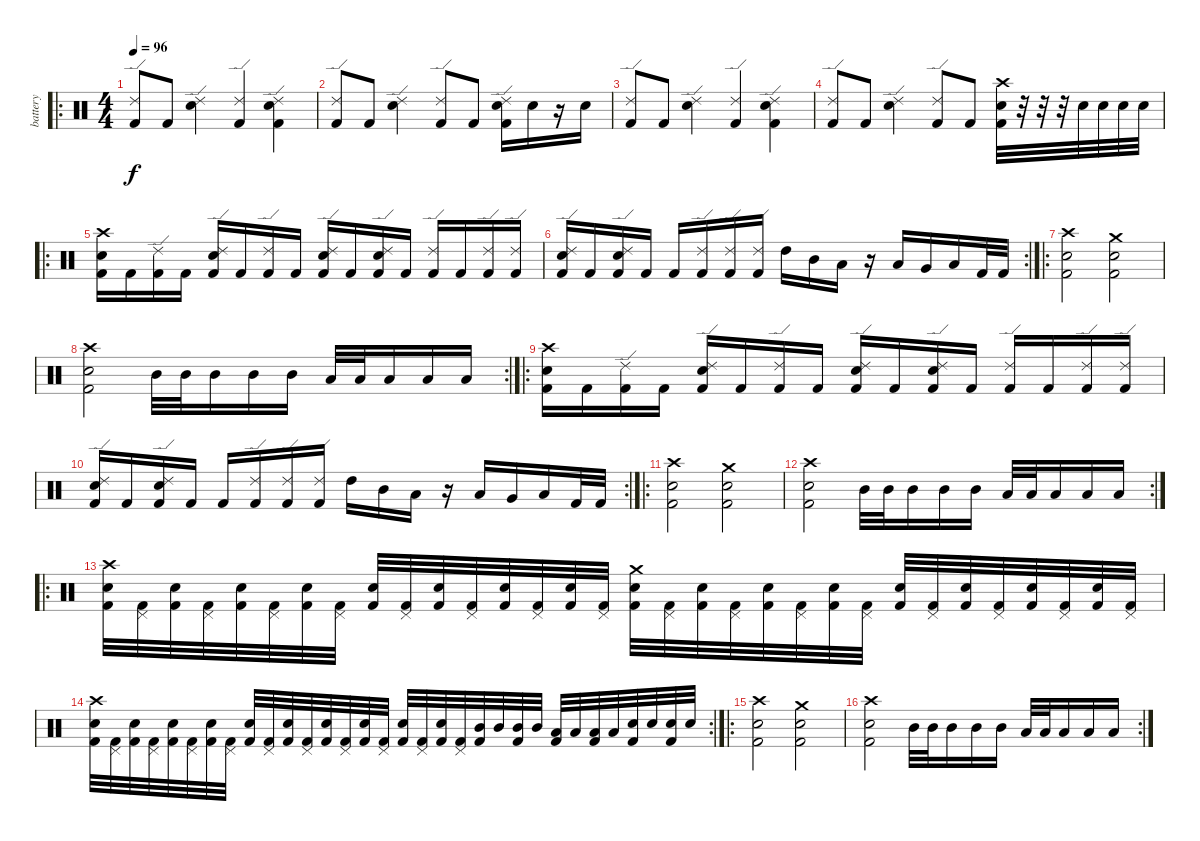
\track ("battery" "battery") {instrument percussion}
\staff {score}
\articulation defaults
\ro
\ts (4 4)
\tempo 96
\clef neutral
\ks c
("Ride (edge) 2" "Kick (hit) 2").8{dy f} "Kick (hit) 2".8 ("Ride (edge) 2" "Snare (hit) 2").4 ("Ride (edge) 2" "Kick (hit) 2").4 ("Ride (edge) 2" "Snare (hit) 2" "Kick (hit) 2").4 |
("Ride (edge) 2" "Kick (hit) 2").8 "Kick (hit) 2".8 ("Ride (edge) 2" "Snare (hit) 2").4 ("Ride (edge) 2" "Kick (hit) 2").8 "Kick (hit) 2".8 ("Ride (edge) 2" "Snare (hit) 2" "Kick (hit) 2").16 "Snare (hit) 2".16 r.16 "Snare (hit) 2".16 |
("Ride (edge) 2" "Kick (hit) 2").8 "Kick (hit) 2".8 ("Ride (edge) 2" "Snare (hit) 2").4 ("Ride (edge) 2" "Kick (hit) 2").4 ("Ride (edge) 2" "Snare (hit) 2" "Kick (hit) 2").4 |
("Ride (edge) 2" "Kick (hit) 2").8 "Kick (hit) 2".8 ("Ride (edge) 2" "Snare (hit) 2").4 ("Ride (edge) 2" "Kick (hit) 2").8 "Kick (hit) 2".8 ("Crash high (hit)" "Snare (hit) 2" "Kick (hit) 2").32 r.32 r.32 r.32 "Snare (hit) 2".32 "Snare (hit) 2".32 "Snare (hit) 2".32 "Snare (hit) 2".32 |
\ro
("Crash high (hit)" "Snare (hit) 2" "Kick (hit) 2").16 "Kick (hit) 2".16 ("Ride (edge) 2" "Kick (hit) 2").16 "Kick (hit) 2".16 ("Ride (edge) 2" "Snare (hit) 2" "Kick (hit) 2").16 "Kick (hit) 2".16 ("Ride (edge) 2" "Kick (hit) 2").16 "Kick (hit) 2".16 ("Ride (edge) 2" "Snare (hit) 2" "Kick (hit) 2").16 "Kick (hit) 2".16 ("Ride (edge) 2" "Snare (hit) 2" "Kick (hit) 2").16 "Kick (hit) 2".16 ("Ride (edge) 2" "Kick (hit) 2").16 "Kick (hit) 2".16 ("Ride (edge) 2" "Kick (hit) 2").16 ("Ride (edge) 2" "Kick (hit) 2").16 |
\rc 2
("Ride (edge) 2" "Snare (hit) 2" "Kick (hit) 2").16 "Kick (hit) 2".16 ("Ride (edge) 2" "Snare (hit) 2" "Kick (hit) 2").16 "Kick (hit) 2".16 "Kick (hit) 2".16 ("Ride (edge) 2" "Kick (hit) 2").16 ("Ride (edge) 2" "Kick (hit) 2").16 ("Ride (edge) 2" "Kick (hit) 2").16 "High Tom (hit)".16 "Mid Tom (hit)".16 "Low Tom (hit)".16 r.16 "Low Tom (hit)".16 "Very Low Tom (hit)".16 "Low Floor Tom (hit)".16 "Kick (hit) 2".32 "Kick (hit) 2".32 |
\ro
("Snare (hit) 2" "Crash high (hit)" "Kick (hit) 2").2 ("Snare (hit) 2" "Crash medium (hit)" "Kick (hit) 2").2 |
\rc 2
("Snare (hit) 2" "Crash high (hit)" "Kick (hit) 2").2 "Mid Tom (hit)".32 "Mid Tom (hit)".32 "Mid Tom (hit)".16 "Mid Tom (hit)".16 "Mid Tom (hit)".16 "Low Tom (hit)".32 "Low Tom (hit)".32 "Low Tom (hit)".16 "Low Tom (hit)".16 "Low Tom (hit)".16 |
\ro
("Crash high (hit)" "Snare (hit) 2" "Kick (hit) 2").16 "Kick (hit) 2".16 ("Ride (edge) 2" "Kick (hit) 2").16 "Kick (hit) 2".16 ("Ride (edge) 2" "Snare (hit) 2" "Kick (hit) 2").16 "Kick (hit) 2".16 ("Ride (edge) 2" "Kick (hit) 2").16 "Kick (hit) 2".16 ("Ride (edge) 2" "Snare (hit) 2" "Kick (hit) 2").16 "Kick (hit) 2".16 ("Ride (edge) 2" "Snare (hit) 2" "Kick (hit) 2").16 "Kick (hit) 2".16 ("Ride (edge) 2" "Kick (hit) 2").16 "Kick (hit) 2".16 ("Ride (edge) 2" "Kick (hit) 2").16 ("Ride (edge) 2" "Kick (hit) 2").16 |
\rc 2
("Ride (edge) 2" "Snare (hit) 2" "Kick (hit) 2").16 "Kick (hit) 2".16 ("Ride (edge) 2" "Snare (hit) 2" "Kick (hit) 2").16 "Kick (hit) 2".16 "Kick (hit) 2".16 ("Ride (edge) 2" "Kick (hit) 2").16 ("Ride (edge) 2" "Kick (hit) 2").16 ("Ride (edge) 2" "Kick (hit) 2").16 "High Tom (hit)".16 "Mid Tom (hit)".16 "Low Tom (hit)".16 r.16 "Low Tom (hit)".16 "Very Low Tom (hit)".16 "Low Floor Tom (hit)".16 "Kick (hit) 2".32 "Kick (hit) 2".32 |
\ro
("Snare (hit) 2" "Crash high (hit)" "Kick (hit) 2").2 ("Snare (hit) 2" "Crash medium (hit)" "Kick (hit) 2").2 |
\rc 2
("Snare (hit) 2" "Crash high (hit)" "Kick (hit) 2").2 "Mid Tom (hit)".32 "Mid Tom (hit)".32 "Mid Tom (hit)".16 "Mid Tom (hit)".16 "Mid Tom (hit)".16 "Low Tom (hit)".32 "Low Tom (hit)".32 "Low Tom (hit)".16 "Low Tom (hit)".16 "Low Tom (hit)".16 |
\ro
("Crash high (hit)" "Snare (hit) 2" "Kick (hit) 2").32 ("Pedal Hi-Hat (hit)" "Kick (hit) 2").32 ("Snare (hit) 2" "Kick (hit) 2").32 ("Pedal Hi-Hat (hit)" "Kick (hit) 2").32 ("Snare (hit) 2" "Kick (hit) 2").32 ("Pedal Hi-Hat (hit)" "Kick (hit) 2").32 ("Snare (hit) 2" "Kick (hit) 2").32 ("Pedal Hi-Hat (hit)" "Kick (hit) 2").32 ("Snare (hit) 2" "Kick (hit) 2").32 ("Pedal Hi-Hat (hit)" "Kick (hit) 2").32 ("Snare (hit) 2" "Kick (hit) 2").32 ("Pedal Hi-Hat (hit)" "Kick (hit) 2").32 ("Snare (hit) 2" "Kick (hit) 2").32 ("Pedal Hi-Hat (hit)" "Kick (hit) 2").32 ("Snare (hit) 2" "Kick (hit) 2").32 ("Pedal Hi-Hat (hit)" "Kick (hit) 2").32 ("Crash medium (hit)" "Snare (hit) 2" "Kick (hit) 2").32 ("Pedal Hi-Hat (hit)" "Kick (hit) 2").32 ("Snare (hit) 2" "Kick (hit) 2").32 ("Pedal Hi-Hat (hit)" "Kick (hit) 2").32 ("Snare (hit) 2" "Kick (hit) 2").32 ("Pedal Hi-Hat (hit)" "Kick (hit) 2").32 ("Snare (hit) 2" "Kick (hit) 2").32 ("Pedal Hi-Hat (hit)" "Kick (hit) 2").32 ("Snare (hit) 2" "Kick (hit) 2").32 ("Pedal Hi-Hat (hit)" "Kick (hit) 2").32 ("Snare (hit) 2" "Kick (hit) 2").32 ("Pedal Hi-Hat (hit)" "Kick (hit) 2").32 ("Snare (hit) 2" "Kick (hit) 2").32 ("Pedal Hi-Hat (hit)" "Kick (hit) 2").32 ("Snare (hit) 2" "Kick (hit) 2").32 ("Pedal Hi-Hat (hit)" "Kick (hit) 2").32 |
\rc 2
("Crash high (hit)" "Snare (hit) 2" "Kick (hit) 2").32 ("Pedal Hi-Hat (hit)" "Kick (hit) 2").32 ("Snare (hit) 2" "Kick (hit) 2").32 ("Pedal Hi-Hat (hit)" "Kick (hit) 2").32 ("Snare (hit) 2" "Kick (hit) 2").32 ("Pedal Hi-Hat (hit)" "Kick (hit) 2").32 ("Snare (hit) 2" "Kick (hit) 2").32 ("Pedal Hi-Hat (hit)" "Kick (hit) 2").32 ("Snare (hit) 2" "Kick (hit) 2").32 ("Pedal Hi-Hat (hit)" "Kick (hit) 2").32 ("Snare (hit) 2" "Kick (hit) 2").32 ("Pedal Hi-Hat (hit)" "Kick (hit) 2").32 ("Snare (hit) 2" "Kick (hit) 2").32 ("Pedal Hi-Hat (hit)" "Kick (hit) 2").32 ("Snare (hit) 2" "Kick (hit) 2").32 ("Pedal Hi-Hat (hit)" "Kick (hit) 2").32 ("Snare (hit) 2" "Kick (hit) 2").32 ("Pedal Hi-Hat (hit)" "Kick (hit) 2").32 ("Snare (hit) 2" "Kick (hit) 2").32 ("Pedal Hi-Hat (hit)" "Kick (hit) 2").32 ("Mid Tom (hit)" "Kick (hit) 2").32 "Mid Tom (hit)".32 ("Mid Tom (hit)" "Kick (hit) 2").32 "Mid Tom (hit)".32 ("Low Tom (hit)" "Kick (hit) 2").32 "Low Tom (hit)".32 ("Low Tom (hit)" "Kick (hit) 2").32 "Low Tom (hit)".32 ("Snare (hit) 2" "Kick (hit) 2").32 "Snare (hit) 2".32 ("Snare (hit) 2" "Kick (hit) 2").32 "Snare (hit) 2".32 |
\ro
("Snare (hit) 2" "Crash high (hit)" "Kick (hit) 2").2 ("Snare (hit) 2" "Crash medium (hit)" "Kick (hit) 2").2 |
\rc 2
("Snare (hit) 2" "Crash high (hit)" "Kick (hit) 2").2 "Mid Tom (hit)".32 "Mid Tom (hit)".32 "Mid Tom (hit)".16 "Mid Tom (hit)".16 "Mid Tom (hit)".16 "Low Tom (hit)".32 "Low Tom (hit)".32 "Low Tom (hit)".16 "Low Tom (hit)".16 "Low Tom (hit)".16
